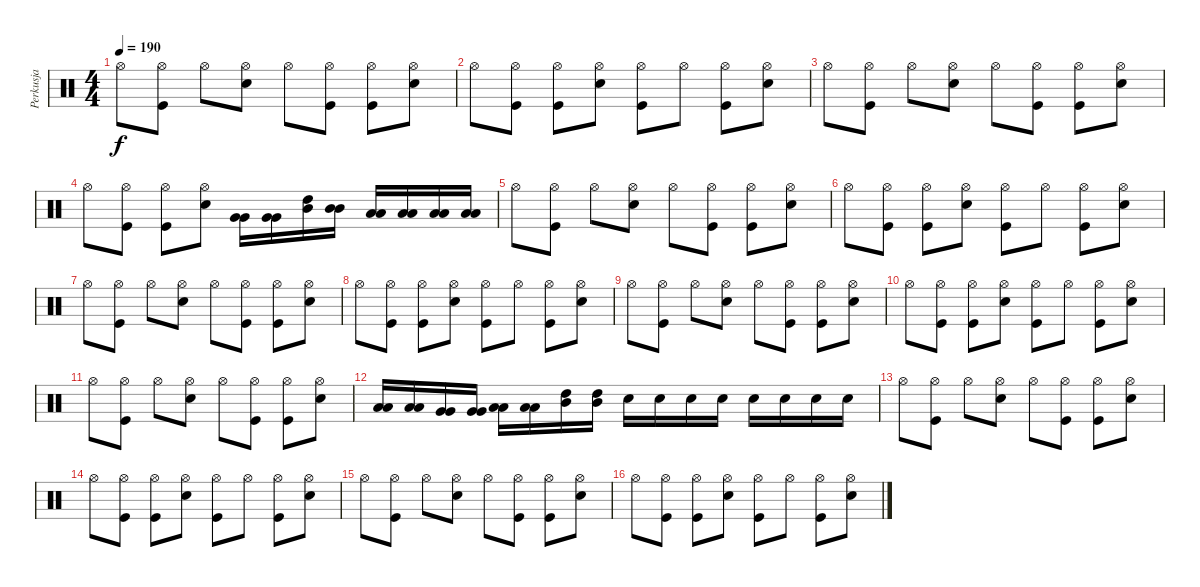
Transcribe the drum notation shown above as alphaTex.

\track ("Perkusja" "Perkusja") {instrument percussion}
\staff {score}
\articulation defaults
\ts (4 4)
\tempo 190
\clef neutral
\ks c "Hi-Hat (open)".8{dy f}
("Hi-Hat (open)" "Kick (hit)").8 "Hi-Hat (open)".8 ("Hi-Hat (open)" "Electric Snare (hit)").8 "Hi-Hat (open)".8 ("Hi-Hat (open)" "Kick (hit)").8 ("Hi-Hat (open)" "Kick (hit)").8 ("Hi-Hat (open)" "Electric Snare (hit)").8 |
"Hi-Hat (open)".8 ("Hi-Hat (open)" "Kick (hit)").8 ("Hi-Hat (open)" "Kick (hit)").8 ("Hi-Hat (open)" "Electric Snare (hit)").8 ("Hi-Hat (open)" "Kick (hit)").8 "Hi-Hat (open)".8 ("Hi-Hat (open)" "Kick (hit)").8 ("Hi-Hat (open)" "Electric Snare (hit)").8 |
"Hi-Hat (open)".8 ("Hi-Hat (open)" "Kick (hit)").8 "Hi-Hat (open)".8 ("Hi-Hat (open)" "Electric Snare (hit)").8 "Hi-Hat (open)".8 ("Hi-Hat (open)" "Kick (hit)").8 ("Hi-Hat (open)" "Kick (hit)").8 ("Hi-Hat (open)" "Electric Snare (hit)").8 |
"Hi-Hat (open)".8 ("Hi-Hat (open)" "Kick (hit)").8 ("Hi-Hat (open)" "Kick (hit)").8 ("Hi-Hat (open)" "Electric Snare (hit)").8 ("Very Low Tom (hit)" "Very Low Tom (hit)").16 ("Very Low Tom (hit)" "Very Low Tom (hit)").16 ("Mid Tom (hit)" "High Tom (hit)").16 ("Mid Tom (hit)" "Mid Tom (hit)").16 ("Low Floor Tom (hit)" "Low Floor Tom (hit)").16 ("Low Floor Tom (hit)" "Low Floor Tom (hit)").16 ("Low Tom (hit)" "Low Tom (hit)").16 ("Low Tom (hit)" "Low Tom (hit)").16 |
"Hi-Hat (open)".8 ("Hi-Hat (open)" "Kick (hit)").8 "Hi-Hat (open)".8 ("Hi-Hat (open)" "Electric Snare (hit)").8 "Hi-Hat (open)".8 ("Hi-Hat (open)" "Kick (hit)").8 ("Hi-Hat (open)" "Kick (hit)").8 ("Hi-Hat (open)" "Electric Snare (hit)").8 |
"Hi-Hat (open)".8 ("Hi-Hat (open)" "Kick (hit)").8 ("Hi-Hat (open)" "Kick (hit)").8 ("Hi-Hat (open)" "Electric Snare (hit)").8 ("Hi-Hat (open)" "Kick (hit)").8 "Hi-Hat (open)".8 ("Hi-Hat (open)" "Kick (hit)").8 ("Hi-Hat (open)" "Electric Snare (hit)").8 |
"Hi-Hat (open)".8 ("Hi-Hat (open)" "Kick (hit)").8 "Hi-Hat (open)".8 ("Hi-Hat (open)" "Electric Snare (hit)").8 "Hi-Hat (open)".8 ("Hi-Hat (open)" "Kick (hit)").8 ("Hi-Hat (open)" "Kick (hit)").8 ("Hi-Hat (open)" "Electric Snare (hit)").8 |
"Hi-Hat (open)".8 ("Hi-Hat (open)" "Kick (hit)").8 ("Hi-Hat (open)" "Kick (hit)").8 ("Hi-Hat (open)" "Electric Snare (hit)").8 ("Hi-Hat (open)" "Kick (hit)").8 "Hi-Hat (open)".8 ("Hi-Hat (open)" "Kick (hit)").8 ("Hi-Hat (open)" "Electric Snare (hit)").8 |
"Hi-Hat (open)".8 ("Hi-Hat (open)" "Kick (hit)").8 "Hi-Hat (open)".8 ("Hi-Hat (open)" "Electric Snare (hit)").8 "Hi-Hat (open)".8 ("Hi-Hat (open)" "Kick (hit)").8 ("Hi-Hat (open)" "Kick (hit)").8 ("Hi-Hat (open)" "Electric Snare (hit)").8 |
"Hi-Hat (open)".8 ("Hi-Hat (open)" "Kick (hit)").8 ("Hi-Hat (open)" "Kick (hit)").8 ("Hi-Hat (open)" "Electric Snare (hit)").8 ("Hi-Hat (open)" "Kick (hit)").8 "Hi-Hat (open)".8 ("Hi-Hat (open)" "Kick (hit)").8 ("Hi-Hat (open)" "Electric Snare (hit)").8 |
"Hi-Hat (open)".8 ("Hi-Hat (open)" "Kick (hit)").8 "Hi-Hat (open)".8 ("Hi-Hat (open)" "Electric Snare (hit)").8 "Hi-Hat (open)".8 ("Hi-Hat (open)" "Kick (hit)").8 ("Hi-Hat (open)" "Kick (hit)").8 ("Hi-Hat (open)" "Electric Snare (hit)").8 |
("Low Floor Tom (hit)" "Low Floor Tom (hit)").16 ("Low Floor Tom (hit)" "Low Floor Tom (hit)").16 ("Very Low Tom (hit)" "Very Low Tom (hit)").16 ("Very Low Tom (hit)" "Very Low Tom (hit)").16 ("Low Tom (hit)" "Low Tom (hit)").16 ("Low Tom (hit)" "Low Tom (hit)").16 ("Mid Tom (hit)" "High Tom (hit)").16 ("Mid Tom (hit)" "High Tom (hit)").16 "Electric Snare (hit)".16 "Electric Snare (hit)".16 "Electric Snare (hit)".16 "Electric Snare (hit)".16 "Electric Snare (hit)".16 "Electric Snare (hit)".16 "Electric Snare (hit)".16 "Electric Snare (hit)".16 |
"Hi-Hat (open)".8 ("Hi-Hat (open)" "Kick (hit)").8 "Hi-Hat (open)".8 ("Hi-Hat (open)" "Electric Snare (hit)").8 "Hi-Hat (open)".8 ("Hi-Hat (open)" "Kick (hit)").8 ("Hi-Hat (open)" "Kick (hit)").8 ("Hi-Hat (open)" "Electric Snare (hit)").8 |
"Hi-Hat (open)".8 ("Hi-Hat (open)" "Kick (hit)").8 ("Hi-Hat (open)" "Kick (hit)").8 ("Hi-Hat (open)" "Electric Snare (hit)").8 ("Hi-Hat (open)" "Kick (hit)").8 "Hi-Hat (open)".8 ("Hi-Hat (open)" "Kick (hit)").8 ("Hi-Hat (open)" "Electric Snare (hit)").8 |
"Hi-Hat (open)".8 ("Hi-Hat (open)" "Kick (hit)").8 "Hi-Hat (open)".8 ("Hi-Hat (open)" "Electric Snare (hit)").8 "Hi-Hat (open)".8 ("Hi-Hat (open)" "Kick (hit)").8 ("Hi-Hat (open)" "Kick (hit)").8 ("Hi-Hat (open)" "Electric Snare (hit)").8 |
"Hi-Hat (open)".8 ("Hi-Hat (open)" "Kick (hit)").8 ("Hi-Hat (open)" "Kick (hit)").8 ("Hi-Hat (open)" "Electric Snare (hit)").8 ("Hi-Hat (open)" "Kick (hit)").8 "Hi-Hat (open)".8 ("Hi-Hat (open)" "Kick (hit)").8 ("Hi-Hat (open)" "Electric Snare (hit)").8
